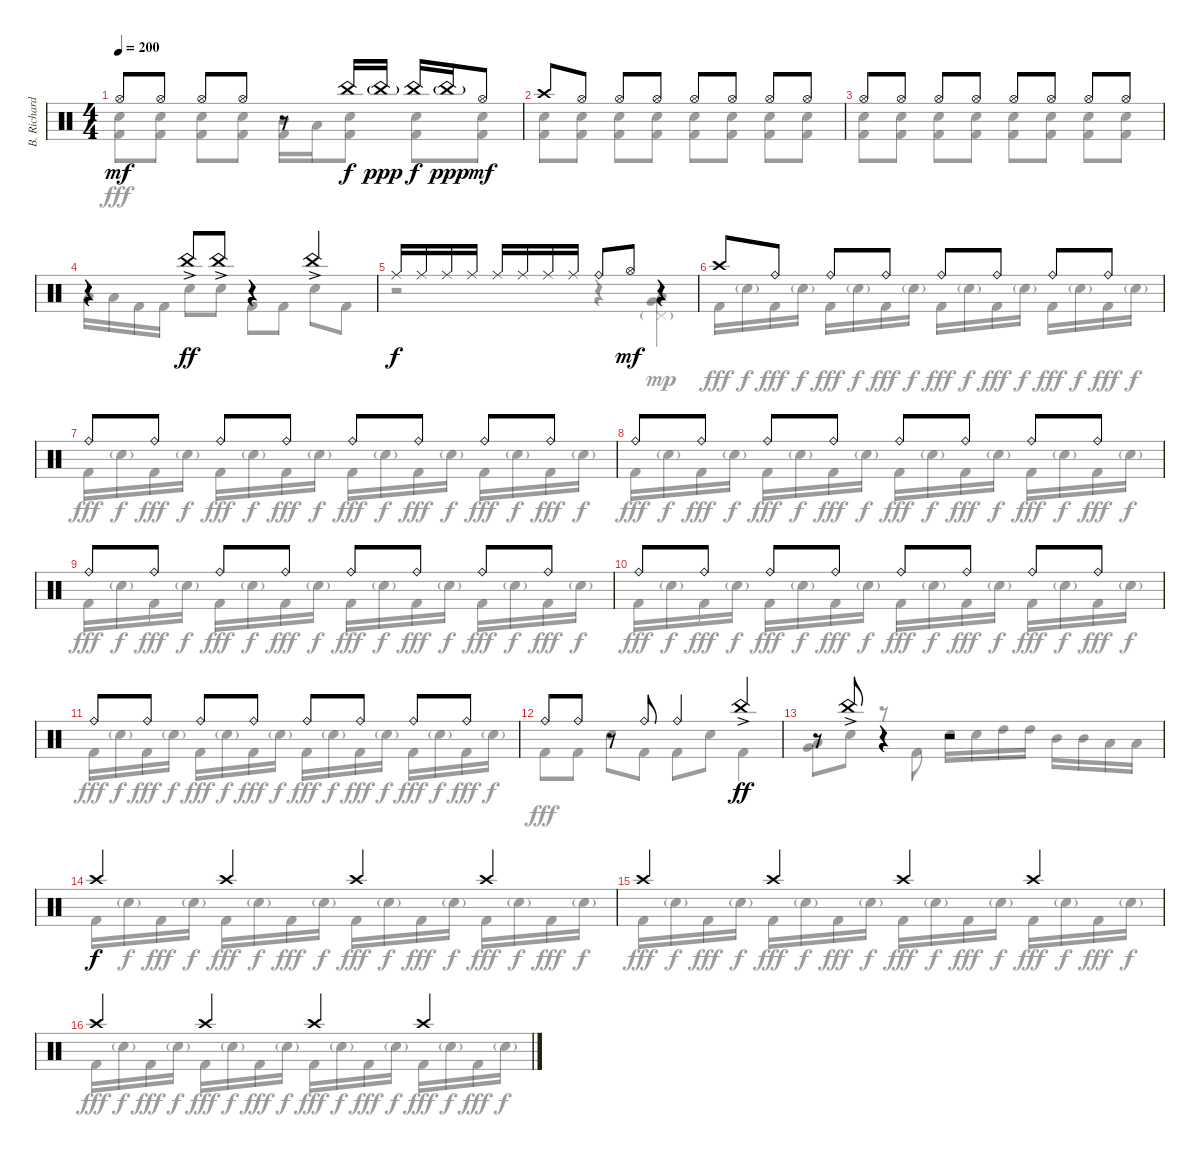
\track ("B. Richardson Drums" "B. Richard") {instrument percussion}
\staff {score}
\articulation defaults
\voice
\ts (4 4)
\tempo 200
\clef neutral
\ks c "Hi-Hat (open)".8{dy mf} "Hi-Hat (open)".8 "Hi-Hat (open)".8 "Hi-Hat (open)".8
r.8 "China (hit)".16{dy f} "China (hit)"{g}.16{dy ppp} "China (hit)".16{dy f} "China (hit)"{g}.16{dy ppp} "Hi-Hat (open)".8{dy mf} |
"Crash high (hit)".8 "Hi-Hat (open)".8 "Hi-Hat (open)".8 "Hi-Hat (open)".8 "Hi-Hat (open)".8 "Hi-Hat (open)".8 "Hi-Hat (open)".8 "Hi-Hat (open)".8 |
"Hi-Hat (open)".8 "Hi-Hat (open)".8 "Hi-Hat (open)".8 "Hi-Hat (open)".8 "Hi-Hat (open)".8 "Hi-Hat (open)".8 "Hi-Hat (open)".8 "Hi-Hat (open)".8 |
r.4 "China (hit)"{ac}.8{dy ff} "China (hit)"{ac}.8 r.4 "China (hit)"{ac}.4 |
"Ride (middle)".16{dy f} "Ride (middle)".16 "Ride (middle)".16 "Ride (middle)".16 "Ride (middle)".16 "Ride (middle)".16 "Ride (middle)".16 "Ride (middle)".16 "Ride (bell)".8 "Hi-Hat (open)".8{dy mf} r.4 |
"Crash high (hit)".8 "Ride (bell)".8 "Ride (bell)".8 "Ride (bell)".8 "Ride (bell)".8 "Ride (bell)".8 "Ride (bell)".8 "Ride (bell)".8 |
"Ride (bell)".8 "Ride (bell)".8 "Ride (bell)".8 "Ride (bell)".8 "Ride (bell)".8 "Ride (bell)".8 "Ride (bell)".8 "Ride (bell)".8 |
"Ride (bell)".8 "Ride (bell)".8 "Ride (bell)".8 "Ride (bell)".8 "Ride (bell)".8 "Ride (bell)".8 "Ride (bell)".8 "Ride (bell)".8 |
"Ride (bell)".8 "Ride (bell)".8 "Ride (bell)".8 "Ride (bell)".8 "Ride (bell)".8 "Ride (bell)".8 "Ride (bell)".8 "Ride (bell)".8 |
"Ride (bell)".8 "Ride (bell)".8 "Ride (bell)".8 "Ride (bell)".8 "Ride (bell)".8 "Ride (bell)".8 "Ride (bell)".8 "Ride (bell)".8 |
"Ride (bell)".8 "Ride (bell)".8 "Ride (bell)".8 "Ride (bell)".8 "Ride (bell)".8 "Ride (bell)".8 "Ride (bell)".8 "Ride (bell)".8 |
"Ride (bell)".8 "Ride (bell)".8 r.8 "Ride (bell)".8 "Ride (bell)".4 "China (hit)"{ac}.4{dy ff} |
r.8 "China (hit)"{ac}.8 r.4 r.2 |
"Crash high (hit)".4{dy f} "Crash high (hit)".4 "Crash high (hit)".4 "Crash high (hit)".4 |
"Crash high (hit)".4 "Crash high (hit)".4 "Crash high (hit)".4 "Crash high (hit)".4 |
"Crash high (hit)".4 "Crash high (hit)".4 "Crash high (hit)".4 "Crash high (hit)".4
\voice
\clef neutral
\ottava regular
\simile none
\ks c
("Electric Snare (hit)" "Kick (hit) 2").8{dy fff} ("Electric Snare (hit)" "Kick (hit) 2").8 ("Electric Snare (hit)" "Kick (hit) 2").8 ("Electric Snare (hit)" "Kick (hit) 2").8 ("Mid Tom (hit)" "Kick (hit) 2").16 "Low Tom (hit)".16 ("Electric Snare (hit)" "Kick (hit) 2").8 ("Electric Snare (hit)" "Kick (hit) 2").8 ("Electric Snare (hit)" "Kick (hit) 2").8 |
("Electric Snare (hit)" "Kick (hit) 2").8 ("Electric Snare (hit)" "Kick (hit) 2").8 ("Electric Snare (hit)" "Kick (hit) 2").8 ("Electric Snare (hit)" "Kick (hit) 2").8 ("Electric Snare (hit)" "Kick (hit) 2").8 ("Electric Snare (hit)" "Kick (hit) 2").8 ("Electric Snare (hit)" "Kick (hit) 2").8 ("Electric Snare (hit)" "Kick (hit) 2").8 |
("Electric Snare (hit)" "Kick (hit) 2").8 ("Electric Snare (hit)" "Kick (hit) 2").8 ("Electric Snare (hit)" "Kick (hit) 2").8 ("Electric Snare (hit)" "Kick (hit) 2").8 ("Electric Snare (hit)" "Kick (hit) 2").8 ("Electric Snare (hit)" "Kick (hit) 2").8 ("Electric Snare (hit)" "Kick (hit) 2").8 ("Electric Snare (hit)" "Kick (hit) 2").8 |
"Low Tom (hit)".16 "Low Tom (hit)".16 "Kick (hit) 2".16 "Kick (hit) 2".16 "Electric Snare (hit)".8 "Electric Snare (hit)".8 "Kick (hit) 2".8 "Kick (hit) 2".8 "Electric Snare (hit)".8 "Kick (hit) 2".8 |
r.2 r.4 ("Low Tom (hit)" "Very Low Tom (hit)" "Pedal Hi-Hat (hit)"{g}).4{dy mp} |
"Kick (hit) 2".16{dy fff} "Electric Snare (hit)"{g}.16{dy f} "Kick (hit) 2".16{dy fff} "Electric Snare (hit)"{g}.16{dy f} "Kick (hit) 2".16{dy fff} "Electric Snare (hit)"{g}.16{dy f} "Kick (hit) 2".16{dy fff} "Electric Snare (hit)"{g}.16{dy f} "Kick (hit) 2".16{dy fff} "Electric Snare (hit)"{g}.16{dy f} "Kick (hit) 2".16{dy fff} "Electric Snare (hit)"{g}.16{dy f} "Kick (hit) 2".16{dy fff} "Electric Snare (hit)"{g}.16{dy f} "Kick (hit) 2".16{dy fff} "Electric Snare (hit)"{g}.16{dy f} |
"Kick (hit) 2".16{dy fff} "Electric Snare (hit)"{g}.16{dy f} "Kick (hit) 2".16{dy fff} "Electric Snare (hit)"{g}.16{dy f} "Kick (hit) 2".16{dy fff} "Electric Snare (hit)"{g}.16{dy f} "Kick (hit) 2".16{dy fff} "Electric Snare (hit)"{g}.16{dy f} "Kick (hit) 2".16{dy fff} "Electric Snare (hit)"{g}.16{dy f} "Kick (hit) 2".16{dy fff} "Electric Snare (hit)"{g}.16{dy f} "Kick (hit) 2".16{dy fff} "Electric Snare (hit)"{g}.16{dy f} "Kick (hit) 2".16{dy fff} "Electric Snare (hit)"{g}.16{dy f} |
"Kick (hit) 2".16{dy fff} "Electric Snare (hit)"{g}.16{dy f} "Kick (hit) 2".16{dy fff} "Electric Snare (hit)"{g}.16{dy f} "Kick (hit) 2".16{dy fff} "Electric Snare (hit)"{g}.16{dy f} "Kick (hit) 2".16{dy fff} "Electric Snare (hit)"{g}.16{dy f} "Kick (hit) 2".16{dy fff} "Electric Snare (hit)"{g}.16{dy f} "Kick (hit) 2".16{dy fff} "Electric Snare (hit)"{g}.16{dy f} "Kick (hit) 2".16{dy fff} "Electric Snare (hit)"{g}.16{dy f} "Kick (hit) 2".16{dy fff} "Electric Snare (hit)"{g}.16{dy f} |
"Kick (hit) 2".16{dy fff} "Electric Snare (hit)"{g}.16{dy f} "Kick (hit) 2".16{dy fff} "Electric Snare (hit)"{g}.16{dy f} "Kick (hit) 2".16{dy fff} "Electric Snare (hit)"{g}.16{dy f} "Kick (hit) 2".16{dy fff} "Electric Snare (hit)"{g}.16{dy f} "Kick (hit) 2".16{dy fff} "Electric Snare (hit)"{g}.16{dy f} "Kick (hit) 2".16{dy fff} "Electric Snare (hit)"{g}.16{dy f} "Kick (hit) 2".16{dy fff} "Electric Snare (hit)"{g}.16{dy f} "Kick (hit) 2".16{dy fff} "Electric Snare (hit)"{g}.16{dy f} |
"Kick (hit) 2".16{dy fff} "Electric Snare (hit)"{g}.16{dy f} "Kick (hit) 2".16{dy fff} "Electric Snare (hit)"{g}.16{dy f} "Kick (hit) 2".16{dy fff} "Electric Snare (hit)"{g}.16{dy f} "Kick (hit) 2".16{dy fff} "Electric Snare (hit)"{g}.16{dy f} "Kick (hit) 2".16{dy fff} "Electric Snare (hit)"{g}.16{dy f} "Kick (hit) 2".16{dy fff} "Electric Snare (hit)"{g}.16{dy f} "Kick (hit) 2".16{dy fff} "Electric Snare (hit)"{g}.16{dy f} "Kick (hit) 2".16{dy fff} "Electric Snare (hit)"{g}.16{dy f} |
"Kick (hit) 2".16{dy fff} "Electric Snare (hit)"{g}.16{dy f} "Kick (hit) 2".16{dy fff} "Electric Snare (hit)"{g}.16{dy f} "Kick (hit) 2".16{dy fff} "Electric Snare (hit)"{g}.16{dy f} "Kick (hit) 2".16{dy fff} "Electric Snare (hit)"{g}.16{dy f} "Kick (hit) 2".16{dy fff} "Electric Snare (hit)"{g}.16{dy f} "Kick (hit) 2".16{dy fff} "Electric Snare (hit)"{g}.16{dy f} "Kick (hit) 2".16{dy fff} "Electric Snare (hit)"{g}.16{dy f} "Kick (hit) 2".16{dy fff} "Electric Snare (hit)"{g}.16{dy f} |
"Kick (hit) 2".8{dy fff} "Kick (hit) 2".8 "Electric Snare (hit)".8 "Kick (hit) 2".8 "Kick (hit) 2".8 "Electric Snare (hit)".8 "Kick (hit) 2".4 |
("Low Tom (hit)" "Very Low Tom (hit)").8 "Electric Snare (hit)".8 r.8 "Kick (hit) 2".8 "Electric Snare (hit)".16 "Electric Snare (hit)".16 "High Tom (hit)".16 "High Tom (hit)".16 "Mid Tom (hit)".16 "Mid Tom (hit)".16 "Low Tom (hit)".16 "Low Tom (hit)".16 |
"Kick (hit) 2".16 "Electric Snare (hit)"{g}.16{dy f} "Kick (hit) 2".16{dy fff} "Electric Snare (hit)"{g}.16{dy f} "Kick (hit) 2".16{dy fff} "Electric Snare (hit)"{g}.16{dy f} "Kick (hit) 2".16{dy fff} "Electric Snare (hit)"{g}.16{dy f} "Kick (hit) 2".16{dy fff} "Electric Snare (hit)"{g}.16{dy f} "Kick (hit) 2".16{dy fff} "Electric Snare (hit)"{g}.16{dy f} "Kick (hit) 2".16{dy fff} "Electric Snare (hit)"{g}.16{dy f} "Kick (hit) 2".16{dy fff} "Electric Snare (hit)"{g}.16{dy f} |
"Kick (hit) 2".16{dy fff} "Electric Snare (hit)"{g}.16{dy f} "Kick (hit) 2".16{dy fff} "Electric Snare (hit)"{g}.16{dy f} "Kick (hit) 2".16{dy fff} "Electric Snare (hit)"{g}.16{dy f} "Kick (hit) 2".16{dy fff} "Electric Snare (hit)"{g}.16{dy f} "Kick (hit) 2".16{dy fff} "Electric Snare (hit)"{g}.16{dy f} "Kick (hit) 2".16{dy fff} "Electric Snare (hit)"{g}.16{dy f} "Kick (hit) 2".16{dy fff} "Electric Snare (hit)"{g}.16{dy f} "Kick (hit) 2".16{dy fff} "Electric Snare (hit)"{g}.16{dy f} |
"Kick (hit) 2".16{dy fff} "Electric Snare (hit)"{g}.16{dy f} "Kick (hit) 2".16{dy fff} "Electric Snare (hit)"{g}.16{dy f} "Kick (hit) 2".16{dy fff} "Electric Snare (hit)"{g}.16{dy f} "Kick (hit) 2".16{dy fff} "Electric Snare (hit)"{g}.16{dy f} "Kick (hit) 2".16{dy fff} "Electric Snare (hit)"{g}.16{dy f} "Kick (hit) 2".16{dy fff} "Electric Snare (hit)"{g}.16{dy f} "Kick (hit) 2".16{dy fff} "Electric Snare (hit)"{g}.16{dy f} "Kick (hit) 2".16{dy fff} "Electric Snare (hit)"{g}.16{dy f}
